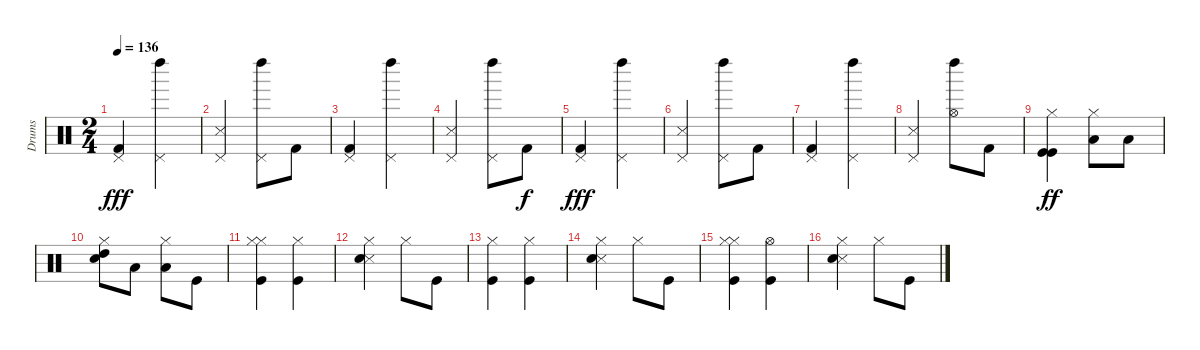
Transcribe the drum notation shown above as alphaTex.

\track ("Drums" "Drums") {instrument percussion}
\staff {score}
\articulation defaults
\ts (2 4)
\tempo 136
\clef neutral
\ks c
("Pedal Hi-Hat (hit)" "Kick (hit) 2").4{dy fff} ("Pedal Hi-Hat (hit)" "Left Maraca (hit)").4 |
("Pedal Hi-Hat (hit)" "Snare (side stick) 3").4 ("Pedal Hi-Hat (hit)" "Left Maraca (hit)").8 "Kick (hit) 2".8 |
("Pedal Hi-Hat (hit)" "Kick (hit) 2").4 ("Pedal Hi-Hat (hit)" "Left Maraca (hit)").4 |
("Pedal Hi-Hat (hit)" "Snare (side stick) 3").4 ("Pedal Hi-Hat (hit)" "Left Maraca (hit)").8 "Kick (hit) 2".8{dy f} |
("Pedal Hi-Hat (hit)" "Kick (hit) 2").4{dy fff} ("Pedal Hi-Hat (hit)" "Left Maraca (hit)").4 |
("Pedal Hi-Hat (hit)" "Snare (side stick) 3").4 ("Pedal Hi-Hat (hit)" "Left Maraca (hit)").8 "Kick (hit) 2".8 |
("Pedal Hi-Hat (hit)" "Kick (hit) 2").4 ("Pedal Hi-Hat (hit)" "Left Maraca (hit)").4 |
("Pedal Hi-Hat (hit)" "Snare (side stick) 3").4 ("Hi-Hat (open)" "Left Maraca (hit)").8 "Kick (hit) 2".8 |
("Kick (hit)" "Hi-Hat (closed)" "Kick (hit)").4{dy ff} ("Low Floor Tom (hit)" "Hi-Hat (closed)").8 "Low Floor Tom (hit)".8 |
("High Tom (hit)" "Hi-Hat (closed)" "Snare (hit) 2").8 "Low Tom (hit)".8 ("Low Floor Tom (hit)" "Hi-Hat (closed)").8 "Kick (hit)".8 |
("Kick (hit)" "Hi-Hat (closed)" "Hi-Hat (closed)").4 ("Kick (hit)" "Hi-Hat (closed)").4 |
("Snare (side stick) 3" "Hi-Hat (closed)" "Snare (hit) 2").4 "Hi-Hat (closed)".8 "Kick (hit)".8 |
("Kick (hit)" "Hi-Hat (closed)").4 ("Kick (hit)" "Hi-Hat (closed)").4 |
("Snare (side stick) 3" "Hi-Hat (closed)" "Snare (hit) 2").4 "Hi-Hat (closed)".8 "Kick (hit)".8 |
("Kick (hit)" "Hi-Hat (closed)" "Hi-Hat (closed)").4 ("Kick (hit)" "Hi-Hat (open)").4 |
("Snare (side stick) 3" "Hi-Hat (closed)" "Snare (hit) 2").4 "Hi-Hat (closed)".8 "Kick (hit)".8
